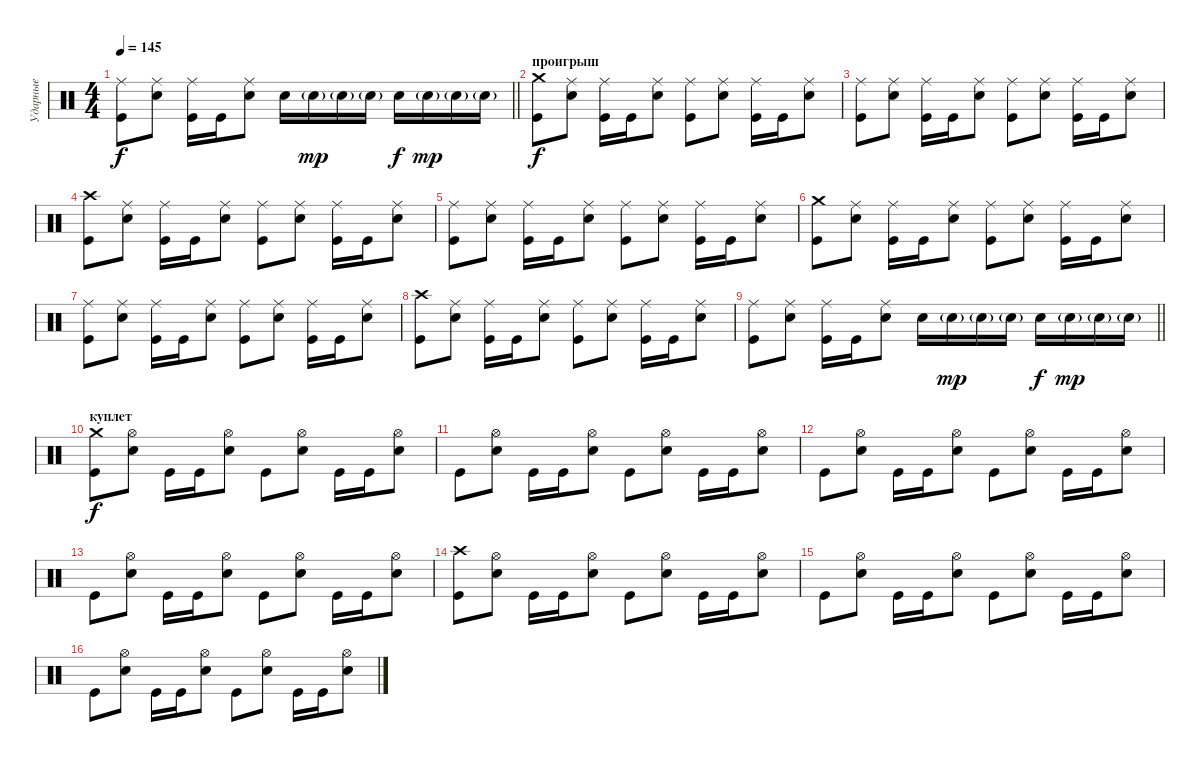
\track ("Ударные" "Ударные") {instrument percussion}
\staff {score}
\articulation defaults
\ts (4 4)
\tempo 145
\clef neutral
\barLineRight lightlight
\ks c
("Ride (middle)" "Kick (hit)").8{dy f} ("Ride (middle)" "Electric Snare (hit)").8 ("Ride (middle)" "Kick (hit)").16 "Kick (hit)".16 ("Ride (middle)" "Electric Snare (hit)").8 "Electric Snare (hit)".16 "Electric Snare (hit)"{g}.16{dy mp} "Electric Snare (hit)"{g}.16 "Electric Snare (hit)"{g}.16 "Electric Snare (hit)".16{dy f} "Electric Snare (hit)"{g}.16{dy mp} "Electric Snare (hit)"{g}.16 "Electric Snare (hit)"{g}.16 |
\section ("" "проигрыш")
("Crash medium (hit)" "Kick (hit)").8{dy f} ("Ride (middle)" "Electric Snare (hit)").8 ("Ride (middle)" "Kick (hit)").16 "Kick (hit)".16 ("Ride (middle)" "Electric Snare (hit)").8 ("Ride (middle)" "Kick (hit)").8 ("Ride (middle)" "Electric Snare (hit)").8 ("Ride (middle)" "Kick (hit)").16 "Kick (hit)".16 ("Ride (middle)" "Electric Snare (hit)").8 |
("Ride (middle)" "Kick (hit)").8 ("Ride (middle)" "Electric Snare (hit)").8 ("Ride (middle)" "Kick (hit)").16 "Kick (hit)".16 ("Ride (middle)" "Electric Snare (hit)").8 ("Ride (middle)" "Kick (hit)").8 ("Ride (middle)" "Electric Snare (hit)").8 ("Ride (middle)" "Kick (hit)").16 "Kick (hit)".16 ("Ride (middle)" "Electric Snare (hit)").8 |
("Crash high (hit)" "Kick (hit)").8 ("Ride (middle)" "Electric Snare (hit)").8 ("Ride (middle)" "Kick (hit)").16 "Kick (hit)".16 ("Ride (middle)" "Electric Snare (hit)").8 ("Ride (middle)" "Kick (hit)").8 ("Ride (middle)" "Electric Snare (hit)").8 ("Ride (middle)" "Kick (hit)").16 "Kick (hit)".16 ("Ride (middle)" "Electric Snare (hit)").8 |
("Ride (middle)" "Kick (hit)").8 ("Ride (middle)" "Electric Snare (hit)").8 ("Ride (middle)" "Kick (hit)").16 "Kick (hit)".16 ("Ride (middle)" "Electric Snare (hit)").8 ("Ride (middle)" "Kick (hit)").8 ("Ride (middle)" "Electric Snare (hit)").8 ("Ride (middle)" "Kick (hit)").16 "Kick (hit)".16 ("Ride (middle)" "Electric Snare (hit)").8 |
("Crash medium (hit)" "Kick (hit)").8 ("Ride (middle)" "Electric Snare (hit)").8 ("Ride (middle)" "Kick (hit)").16 "Kick (hit)".16 ("Ride (middle)" "Electric Snare (hit)").8 ("Ride (middle)" "Kick (hit)").8 ("Ride (middle)" "Electric Snare (hit)").8 ("Ride (middle)" "Kick (hit)").16 "Kick (hit)".16 ("Ride (middle)" "Electric Snare (hit)").8 |
("Ride (middle)" "Kick (hit)").8 ("Ride (middle)" "Electric Snare (hit)").8 ("Ride (middle)" "Kick (hit)").16 "Kick (hit)".16 ("Ride (middle)" "Electric Snare (hit)").8 ("Ride (middle)" "Kick (hit)").8 ("Ride (middle)" "Electric Snare (hit)").8 ("Ride (middle)" "Kick (hit)").16 "Kick (hit)".16 ("Ride (middle)" "Electric Snare (hit)").8 |
("Crash high (hit)" "Kick (hit)").8 ("Ride (middle)" "Electric Snare (hit)").8 ("Ride (middle)" "Kick (hit)").16 "Kick (hit)".16 ("Ride (middle)" "Electric Snare (hit)").8 ("Ride (middle)" "Kick (hit)").8 ("Ride (middle)" "Electric Snare (hit)").8 ("Ride (middle)" "Kick (hit)").16 "Kick (hit)".16 ("Ride (middle)" "Electric Snare (hit)").8 |
\barLineRight lightlight
("Ride (middle)" "Kick (hit)").8 ("Ride (middle)" "Electric Snare (hit)").8 ("Ride (middle)" "Kick (hit)").16 "Kick (hit)".16 ("Ride (middle)" "Electric Snare (hit)").8 "Electric Snare (hit)".16 "Electric Snare (hit)"{g}.16{dy mp} "Electric Snare (hit)"{g}.16 "Electric Snare (hit)"{g}.16 "Electric Snare (hit)".16{dy f} "Electric Snare (hit)"{g}.16{dy mp} "Electric Snare (hit)"{g}.16 "Electric Snare (hit)"{g}.16 |
\section ("" "куплет")
("Crash medium (hit)" "Kick (hit)").8{dy f} ("Hi-Hat (open)" "Electric Snare (hit)").8 "Kick (hit)".16 "Kick (hit)".16 ("Hi-Hat (open)" "Electric Snare (hit)").8 "Kick (hit)".8 ("Hi-Hat (open)" "Electric Snare (hit)").8 "Kick (hit)".16 "Kick (hit)".16 ("Hi-Hat (open)" "Electric Snare (hit)").8 |
"Kick (hit)".8 ("Hi-Hat (open)" "Electric Snare (hit)").8 "Kick (hit)".16 "Kick (hit)".16 ("Hi-Hat (open)" "Electric Snare (hit)").8 "Kick (hit)".8 ("Hi-Hat (open)" "Electric Snare (hit)").8 "Kick (hit)".16 "Kick (hit)".16 ("Hi-Hat (open)" "Electric Snare (hit)").8 |
"Kick (hit)".8 ("Hi-Hat (open)" "Electric Snare (hit)").8 "Kick (hit)".16 "Kick (hit)".16 ("Hi-Hat (open)" "Electric Snare (hit)").8 "Kick (hit)".8 ("Hi-Hat (open)" "Electric Snare (hit)").8 "Kick (hit)".16 "Kick (hit)".16 ("Hi-Hat (open)" "Electric Snare (hit)").8 |
"Kick (hit)".8 ("Hi-Hat (open)" "Electric Snare (hit)").8 "Kick (hit)".16 "Kick (hit)".16 ("Hi-Hat (open)" "Electric Snare (hit)").8 "Kick (hit)".8 ("Hi-Hat (open)" "Electric Snare (hit)").8 "Kick (hit)".16 "Kick (hit)".16 ("Hi-Hat (open)" "Electric Snare (hit)").8 |
("Crash high (hit)" "Kick (hit)").8 ("Hi-Hat (open)" "Electric Snare (hit)").8 "Kick (hit)".16 "Kick (hit)".16 ("Hi-Hat (open)" "Electric Snare (hit)").8 "Kick (hit)".8 ("Hi-Hat (open)" "Electric Snare (hit)").8 "Kick (hit)".16 "Kick (hit)".16 ("Hi-Hat (open)" "Electric Snare (hit)").8 |
"Kick (hit)".8 ("Hi-Hat (open)" "Electric Snare (hit)").8 "Kick (hit)".16 "Kick (hit)".16 ("Hi-Hat (open)" "Electric Snare (hit)").8 "Kick (hit)".8 ("Hi-Hat (open)" "Electric Snare (hit)").8 "Kick (hit)".16 "Kick (hit)".16 ("Hi-Hat (open)" "Electric Snare (hit)").8 |
"Kick (hit)".8 ("Hi-Hat (open)" "Electric Snare (hit)").8 "Kick (hit)".16 "Kick (hit)".16 ("Hi-Hat (open)" "Electric Snare (hit)").8 "Kick (hit)".8 ("Hi-Hat (open)" "Electric Snare (hit)").8 "Kick (hit)".16 "Kick (hit)".16 ("Hi-Hat (open)" "Electric Snare (hit)").8
